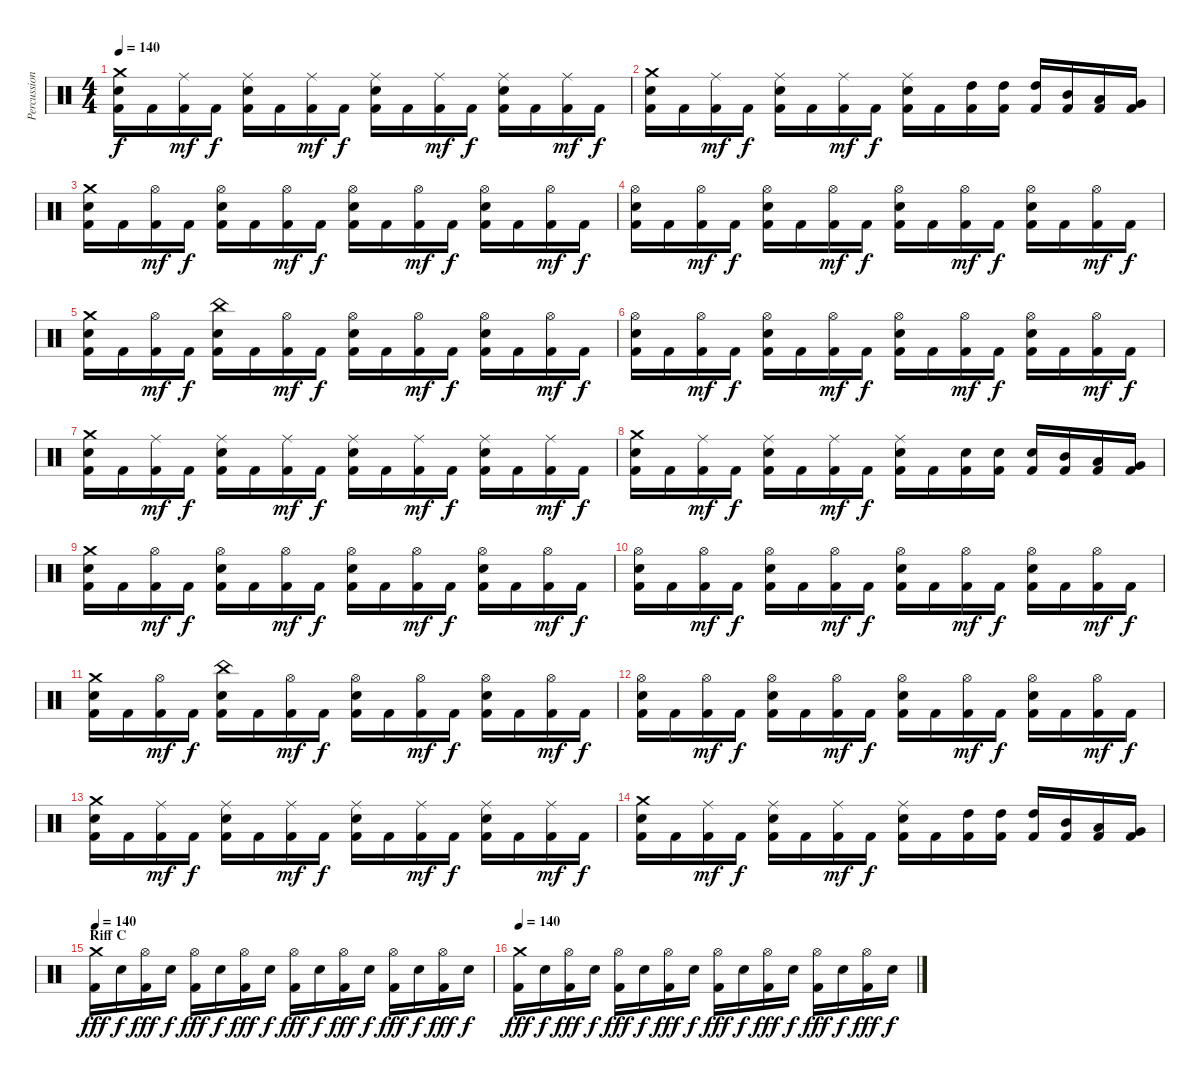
\track ("Percussion" "Percussion") {instrument percussion}
\staff {score}
\articulation defaults
\ts (4 4)
\tempo 140
\clef neutral
\ks c
("Crash medium (hit)" "Snare (hit) 2" "Kick (hit) 2").16{dy f} "Kick (hit) 2".16 ("Ride (middle)" "Kick (hit) 2").16{dy mf} "Kick (hit) 2".16{dy f} ("Ride (middle)" "Snare (hit) 2" "Kick (hit) 2").16 "Kick (hit) 2".16 ("Ride (middle)" "Kick (hit) 2").16{dy mf} "Kick (hit) 2".16{dy f} ("Ride (middle)" "Snare (hit) 2" "Kick (hit) 2").16 "Kick (hit) 2".16 ("Ride (middle)" "Kick (hit) 2").16{dy mf} "Kick (hit) 2".16{dy f} ("Ride (middle)" "Snare (hit) 2" "Kick (hit) 2").16 "Kick (hit) 2".16 ("Ride (middle)" "Kick (hit) 2").16{dy mf} "Kick (hit) 2".16{dy f} |
("Crash medium (hit)" "Snare (hit) 2" "Kick (hit) 2").16 "Kick (hit) 2".16 ("Ride (middle)" "Kick (hit) 2").16{dy mf} "Kick (hit) 2".16{dy f} ("Ride (middle)" "Snare (hit) 2" "Kick (hit) 2").16 "Kick (hit) 2".16 ("Ride (middle)" "Kick (hit) 2").16{dy mf} "Kick (hit) 2".16{dy f} ("Ride (middle)" "Snare (hit) 2" "Kick (hit) 2").16 "Kick (hit) 2".16 ("High Tom (hit)" "Kick (hit) 2").16 ("High Tom (hit)" "Kick (hit) 2").16 ("High Tom (hit)" "Kick (hit) 2").16 ("Mid Tom (hit)" "Kick (hit) 2").16 ("Low Tom (hit)" "Kick (hit) 2").16 ("Very Low Tom (hit)" "Kick (hit) 2").16 |
("Crash medium (hit)" "Snare (hit) 2" "Kick (hit) 2").16 "Kick (hit) 2".16 ("Hi-Hat (open)" "Kick (hit) 2").16{dy mf} "Kick (hit) 2".16{dy f} ("Hi-Hat (open)" "Snare (hit) 2" "Kick (hit) 2").16 "Kick (hit) 2".16 ("Hi-Hat (open)" "Kick (hit) 2").16{dy mf} "Kick (hit) 2".16{dy f} ("Hi-Hat (open)" "Snare (hit) 2" "Kick (hit) 2").16 "Kick (hit) 2".16 ("Hi-Hat (open)" "Kick (hit) 2").16{dy mf} "Kick (hit) 2".16{dy f} ("Hi-Hat (open)" "Snare (hit) 2" "Kick (hit) 2").16 "Kick (hit) 2".16 ("Hi-Hat (open)" "Kick (hit) 2").16{dy mf} "Kick (hit) 2".16{dy f} |
("Hi-Hat (open)" "Snare (hit) 2" "Kick (hit) 2").16 "Kick (hit) 2".16 ("Hi-Hat (open)" "Kick (hit) 2").16{dy mf} "Kick (hit) 2".16{dy f} ("Hi-Hat (open)" "Snare (hit) 2" "Kick (hit) 2").16 "Kick (hit) 2".16 ("Hi-Hat (open)" "Kick (hit) 2").16{dy mf} "Kick (hit) 2".16{dy f} ("Hi-Hat (open)" "Snare (hit) 2" "Kick (hit) 2").16 "Kick (hit) 2".16 ("Hi-Hat (open)" "Kick (hit) 2").16{dy mf} "Kick (hit) 2".16{dy f} ("Hi-Hat (open)" "Snare (hit) 2" "Kick (hit) 2").16 "Kick (hit) 2".16 ("Hi-Hat (open)" "Kick (hit) 2").16{dy mf} "Kick (hit) 2".16{dy f} |
("Crash medium (hit)" "Snare (hit) 2" "Kick (hit) 2").16 "Kick (hit) 2".16 ("Hi-Hat (open)" "Kick (hit) 2").16{dy mf} "Kick (hit) 2".16{dy f} ("China (hit)" "Snare (hit) 2" "Kick (hit) 2").16 "Kick (hit) 2".16 ("Hi-Hat (open)" "Kick (hit) 2").16{dy mf} "Kick (hit) 2".16{dy f} ("Hi-Hat (open)" "Snare (hit) 2" "Kick (hit) 2").16 "Kick (hit) 2".16 ("Hi-Hat (open)" "Kick (hit) 2").16{dy mf} "Kick (hit) 2".16{dy f} ("Hi-Hat (open)" "Snare (hit) 2" "Kick (hit) 2").16 "Kick (hit) 2".16 ("Hi-Hat (open)" "Kick (hit) 2").16{dy mf} "Kick (hit) 2".16{dy f} |
("Hi-Hat (open)" "Snare (hit) 2" "Kick (hit) 2").16 "Kick (hit) 2".16 ("Hi-Hat (open)" "Kick (hit) 2").16{dy mf} "Kick (hit) 2".16{dy f} ("Hi-Hat (open)" "Snare (hit) 2" "Kick (hit) 2").16 "Kick (hit) 2".16 ("Hi-Hat (open)" "Kick (hit) 2").16{dy mf} "Kick (hit) 2".16{dy f} ("Hi-Hat (open)" "Snare (hit) 2" "Kick (hit) 2").16 "Kick (hit) 2".16 ("Hi-Hat (open)" "Kick (hit) 2").16{dy mf} "Kick (hit) 2".16{dy f} ("Hi-Hat (open)" "Snare (hit) 2" "Kick (hit) 2").16 "Kick (hit) 2".16 ("Hi-Hat (open)" "Kick (hit) 2").16{dy mf} "Kick (hit) 2".16{dy f} |
("Crash medium (hit)" "Snare (hit) 2" "Kick (hit) 2").16 "Kick (hit) 2".16 ("Ride (middle)" "Kick (hit) 2").16{dy mf} "Kick (hit) 2".16{dy f} ("Ride (middle)" "Snare (hit) 2" "Kick (hit) 2").16 "Kick (hit) 2".16 ("Ride (middle)" "Kick (hit) 2").16{dy mf} "Kick (hit) 2".16{dy f} ("Ride (middle)" "Snare (hit) 2" "Kick (hit) 2").16 "Kick (hit) 2".16 ("Ride (middle)" "Kick (hit) 2").16{dy mf} "Kick (hit) 2".16{dy f} ("Ride (middle)" "Snare (hit) 2" "Kick (hit) 2").16 "Kick (hit) 2".16 ("Ride (middle)" "Kick (hit) 2").16{dy mf} "Kick (hit) 2".16{dy f} |
("Crash medium (hit)" "Snare (hit) 2" "Kick (hit) 2").16 "Kick (hit) 2".16 ("Ride (middle)" "Kick (hit) 2").16{dy mf} "Kick (hit) 2".16{dy f} ("Ride (middle)" "Snare (hit) 2" "Kick (hit) 2").16 "Kick (hit) 2".16 ("Ride (middle)" "Kick (hit) 2").16{dy mf} "Kick (hit) 2".16{dy f} ("Ride (middle)" "Snare (hit) 2" "Kick (hit) 2").16 "Kick (hit) 2".16 ("Snare (hit) 2" "Kick (hit) 2").16 ("Snare (hit) 2" "Kick (hit) 2").16 ("Snare (hit) 2" "Kick (hit) 2").16 ("Mid Tom (hit)" "Kick (hit) 2").16 ("Low Tom (hit)" "Kick (hit) 2").16 ("Very Low Tom (hit)" "Kick (hit) 2").16 |
("Crash medium (hit)" "Snare (hit) 2" "Kick (hit) 2").16 "Kick (hit) 2".16 ("Hi-Hat (open)" "Kick (hit) 2").16{dy mf} "Kick (hit) 2".16{dy f} ("Hi-Hat (open)" "Snare (hit) 2" "Kick (hit) 2").16 "Kick (hit) 2".16 ("Hi-Hat (open)" "Kick (hit) 2").16{dy mf} "Kick (hit) 2".16{dy f} ("Hi-Hat (open)" "Snare (hit) 2" "Kick (hit) 2").16 "Kick (hit) 2".16 ("Hi-Hat (open)" "Kick (hit) 2").16{dy mf} "Kick (hit) 2".16{dy f} ("Hi-Hat (open)" "Snare (hit) 2" "Kick (hit) 2").16 "Kick (hit) 2".16 ("Hi-Hat (open)" "Kick (hit) 2").16{dy mf} "Kick (hit) 2".16{dy f} |
("Hi-Hat (open)" "Snare (hit) 2" "Kick (hit) 2").16 "Kick (hit) 2".16 ("Hi-Hat (open)" "Kick (hit) 2").16{dy mf} "Kick (hit) 2".16{dy f} ("Hi-Hat (open)" "Snare (hit) 2" "Kick (hit) 2").16 "Kick (hit) 2".16 ("Hi-Hat (open)" "Kick (hit) 2").16{dy mf} "Kick (hit) 2".16{dy f} ("Hi-Hat (open)" "Snare (hit) 2" "Kick (hit) 2").16 "Kick (hit) 2".16 ("Hi-Hat (open)" "Kick (hit) 2").16{dy mf} "Kick (hit) 2".16{dy f} ("Hi-Hat (open)" "Snare (hit) 2" "Kick (hit) 2").16 "Kick (hit) 2".16 ("Hi-Hat (open)" "Kick (hit) 2").16{dy mf} "Kick (hit) 2".16{dy f} |
("Crash medium (hit)" "Snare (hit) 2" "Kick (hit) 2").16 "Kick (hit) 2".16 ("Hi-Hat (open)" "Kick (hit) 2").16{dy mf} "Kick (hit) 2".16{dy f} ("China (hit)" "Snare (hit) 2" "Kick (hit) 2").16 "Kick (hit) 2".16 ("Hi-Hat (open)" "Kick (hit) 2").16{dy mf} "Kick (hit) 2".16{dy f} ("Hi-Hat (open)" "Snare (hit) 2" "Kick (hit) 2").16 "Kick (hit) 2".16 ("Hi-Hat (open)" "Kick (hit) 2").16{dy mf} "Kick (hit) 2".16{dy f} ("Hi-Hat (open)" "Snare (hit) 2" "Kick (hit) 2").16 "Kick (hit) 2".16 ("Hi-Hat (open)" "Kick (hit) 2").16{dy mf} "Kick (hit) 2".16{dy f} |
("Hi-Hat (open)" "Snare (hit) 2" "Kick (hit) 2").16 "Kick (hit) 2".16 ("Hi-Hat (open)" "Kick (hit) 2").16{dy mf} "Kick (hit) 2".16{dy f} ("Hi-Hat (open)" "Snare (hit) 2" "Kick (hit) 2").16 "Kick (hit) 2".16 ("Hi-Hat (open)" "Kick (hit) 2").16{dy mf} "Kick (hit) 2".16{dy f} ("Hi-Hat (open)" "Snare (hit) 2" "Kick (hit) 2").16 "Kick (hit) 2".16 ("Hi-Hat (open)" "Kick (hit) 2").16{dy mf} "Kick (hit) 2".16{dy f} ("Hi-Hat (open)" "Snare (hit) 2" "Kick (hit) 2").16 "Kick (hit) 2".16 ("Hi-Hat (open)" "Kick (hit) 2").16{dy mf} "Kick (hit) 2".16{dy f} |
("Crash medium (hit)" "Snare (hit) 2" "Kick (hit) 2").16 "Kick (hit) 2".16 ("Ride (middle)" "Kick (hit) 2").16{dy mf} "Kick (hit) 2".16{dy f} ("Ride (middle)" "Snare (hit) 2" "Kick (hit) 2").16 "Kick (hit) 2".16 ("Ride (middle)" "Kick (hit) 2").16{dy mf} "Kick (hit) 2".16{dy f} ("Ride (middle)" "Snare (hit) 2" "Kick (hit) 2").16 "Kick (hit) 2".16 ("Ride (middle)" "Kick (hit) 2").16{dy mf} "Kick (hit) 2".16{dy f} ("Ride (middle)" "Snare (hit) 2" "Kick (hit) 2").16 "Kick (hit) 2".16 ("Ride (middle)" "Kick (hit) 2").16{dy mf} "Kick (hit) 2".16{dy f} |
("Crash medium (hit)" "Snare (hit) 2" "Kick (hit) 2").16 "Kick (hit) 2".16 ("Ride (middle)" "Kick (hit) 2").16{dy mf} "Kick (hit) 2".16{dy f} ("Ride (middle)" "Snare (hit) 2" "Kick (hit) 2").16 "Kick (hit) 2".16 ("Ride (middle)" "Kick (hit) 2").16{dy mf} "Kick (hit) 2".16{dy f} ("Ride (middle)" "Snare (hit) 2" "Kick (hit) 2").16 "Kick (hit) 2".16 ("High Tom (hit)" "Kick (hit) 2").16 ("High Tom (hit)" "Kick (hit) 2").16 ("High Tom (hit)" "Kick (hit) 2").16 ("Mid Tom (hit)" "Kick (hit) 2").16 ("Low Tom (hit)" "Kick (hit) 2").16 ("Very Low Tom (hit)" "Kick (hit) 2").16 |
\section ("" "Riff C")
\tempo 140
("Crash medium (hit)" "Kick (hit) 2").16{dy fff} "Snare (hit) 2".16{dy f} ("Hi-Hat (open)" "Kick (hit) 2").16{dy fff} "Snare (hit) 2".16{dy f} ("Hi-Hat (open)" "Kick (hit) 2").16{dy fff} "Snare (hit) 2".16{dy f} ("Hi-Hat (open)" "Kick (hit) 2").16{dy fff} "Snare (hit) 2".16{dy f} ("Hi-Hat (open)" "Kick (hit) 2").16{dy fff} "Snare (hit) 2".16{dy f} ("Hi-Hat (open)" "Kick (hit) 2").16{dy fff} "Snare (hit) 2".16{dy f} ("Hi-Hat (open)" "Kick (hit) 2").16{dy fff} "Snare (hit) 2".16{dy f} ("Hi-Hat (open)" "Kick (hit) 2").16{dy fff} "Snare (hit) 2".16{dy f} |
\tempo 140
("Crash medium (hit)" "Kick (hit) 2").16{dy fff} "Snare (hit) 2".16{dy f} ("Hi-Hat (open)" "Kick (hit) 2").16{dy fff} "Snare (hit) 2".16{dy f} ("Hi-Hat (open)" "Kick (hit) 2").16{dy fff} "Snare (hit) 2".16{dy f} ("Hi-Hat (open)" "Kick (hit) 2").16{dy fff} "Snare (hit) 2".16{dy f} ("Hi-Hat (open)" "Kick (hit) 2").16{dy fff} "Snare (hit) 2".16{dy f} ("Hi-Hat (open)" "Kick (hit) 2").16{dy fff} "Snare (hit) 2".16{dy f} ("Hi-Hat (open)" "Kick (hit) 2").16{dy fff} "Snare (hit) 2".16{dy f} ("Hi-Hat (open)" "Kick (hit) 2").16{dy fff} "Snare (hit) 2".16{dy f}
